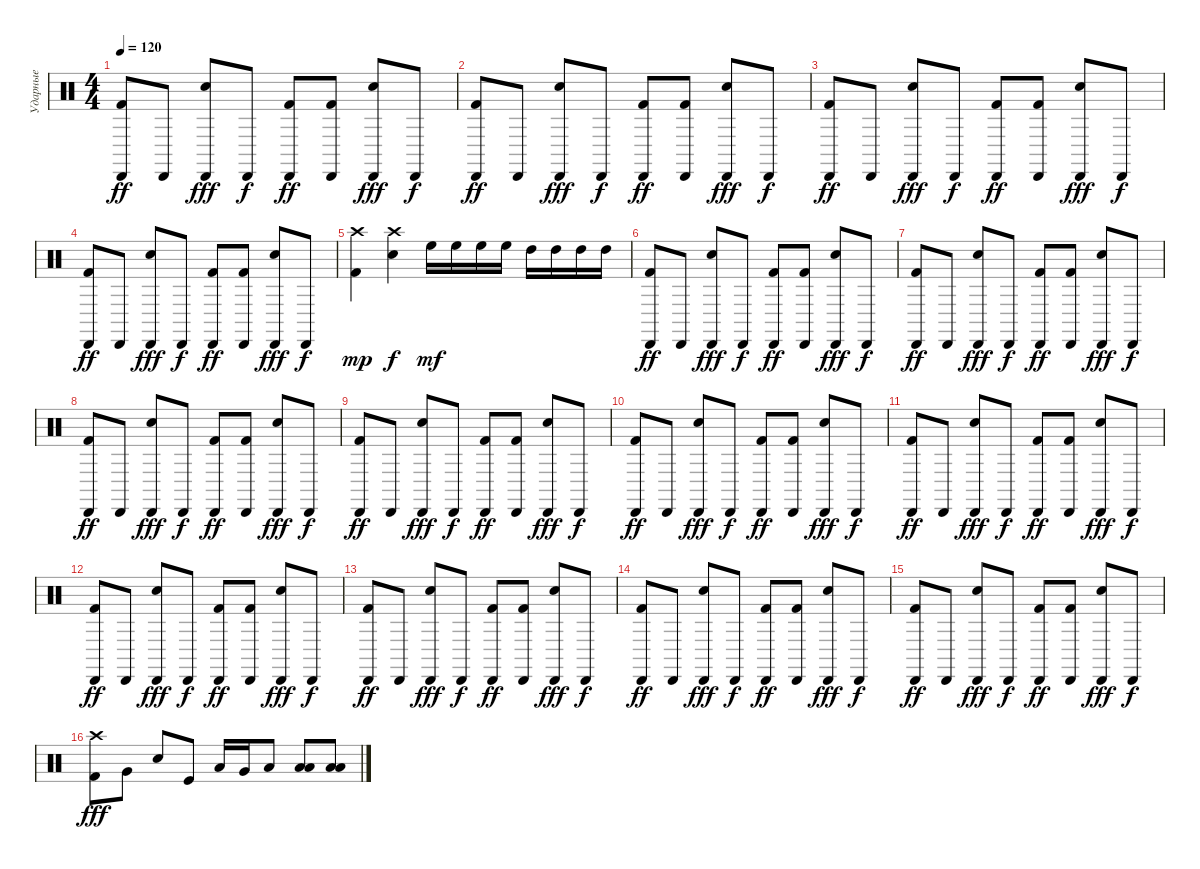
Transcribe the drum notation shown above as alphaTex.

\track ("Ударные" "Ударные") {instrument percussion}
\staff {score}
\articulation defaults
\ts (4 4)
\tempo 120
\clef neutral
\ks c
("Cabasa (hit)" "Kick (hit) 2").8{dy ff} "Cabasa (hit)".8 ("Snare (hit) 2" "Cabasa (hit)").8{dy fff} "Cabasa (hit)".8{dy f} ("Cabasa (hit)" "Kick (hit) 2").8{dy ff} ("Cabasa (hit)" "Kick (hit) 2").8 ("Snare (hit) 2" "Cabasa (hit)").8{dy fff} "Cabasa (hit)".8{dy f} |
("Cabasa (hit)" "Kick (hit) 2").8{dy ff} "Cabasa (hit)".8 ("Snare (hit) 2" "Cabasa (hit)").8{dy fff} "Cabasa (hit)".8{dy f} ("Cabasa (hit)" "Kick (hit) 2").8{dy ff} ("Cabasa (hit)" "Kick (hit) 2").8 ("Snare (hit) 2" "Cabasa (hit)").8{dy fff} "Cabasa (hit)".8{dy f} |
("Cabasa (hit)" "Kick (hit) 2").8{dy ff} "Cabasa (hit)".8 ("Snare (hit) 2" "Cabasa (hit)").8{dy fff} "Cabasa (hit)".8{dy f} ("Cabasa (hit)" "Kick (hit) 2").8{dy ff} ("Cabasa (hit)" "Kick (hit) 2").8 ("Snare (hit) 2" "Cabasa (hit)").8{dy fff} "Cabasa (hit)".8{dy f} |
("Cabasa (hit)" "Kick (hit) 2").8{dy ff} "Cabasa (hit)".8 ("Snare (hit) 2" "Cabasa (hit)").8{dy fff} "Cabasa (hit)".8{dy f} ("Cabasa (hit)" "Kick (hit) 2").8{dy ff} ("Cabasa (hit)" "Kick (hit) 2").8 ("Snare (hit) 2" "Cabasa (hit)").8{dy fff} "Cabasa (hit)".8{dy f} |
("Crash high (hit)" "Kick (hit) 2").4{dy mp} ("Crash high (hit)" "Snare (hit) 2").4{dy f} "High Floor Tom (hit)".16{dy mf} "High Floor Tom (hit)".16 "High Floor Tom (hit)".16 "High Floor Tom (hit)".16 "High Tom (hit)".16 "High Tom (hit)".16 "High Tom (hit)".16 "High Tom (hit)".16 |
("Cabasa (hit)" "Kick (hit) 2").8{dy ff} "Cabasa (hit)".8 ("Snare (hit) 2" "Cabasa (hit)").8{dy fff} "Cabasa (hit)".8{dy f} ("Cabasa (hit)" "Kick (hit) 2").8{dy ff} ("Cabasa (hit)" "Kick (hit) 2").8 ("Snare (hit) 2" "Cabasa (hit)").8{dy fff} "Cabasa (hit)".8{dy f} |
("Cabasa (hit)" "Kick (hit) 2").8{dy ff} "Cabasa (hit)".8 ("Snare (hit) 2" "Cabasa (hit)").8{dy fff} "Cabasa (hit)".8{dy f} ("Cabasa (hit)" "Kick (hit) 2").8{dy ff} ("Cabasa (hit)" "Kick (hit) 2").8 ("Snare (hit) 2" "Cabasa (hit)").8{dy fff} "Cabasa (hit)".8{dy f} |
("Cabasa (hit)" "Kick (hit) 2").8{dy ff} "Cabasa (hit)".8 ("Snare (hit) 2" "Cabasa (hit)").8{dy fff} "Cabasa (hit)".8{dy f} ("Cabasa (hit)" "Kick (hit) 2").8{dy ff} ("Cabasa (hit)" "Kick (hit) 2").8 ("Snare (hit) 2" "Cabasa (hit)").8{dy fff} "Cabasa (hit)".8{dy f} |
("Cabasa (hit)" "Kick (hit) 2").8{dy ff} "Cabasa (hit)".8 ("Snare (hit) 2" "Cabasa (hit)").8{dy fff} "Cabasa (hit)".8{dy f} ("Cabasa (hit)" "Kick (hit) 2").8{dy ff} ("Cabasa (hit)" "Kick (hit) 2").8 ("Snare (hit) 2" "Cabasa (hit)").8{dy fff} "Cabasa (hit)".8{dy f} |
("Cabasa (hit)" "Kick (hit) 2").8{dy ff} "Cabasa (hit)".8 ("Snare (hit) 2" "Cabasa (hit)").8{dy fff} "Cabasa (hit)".8{dy f} ("Cabasa (hit)" "Kick (hit) 2").8{dy ff} ("Cabasa (hit)" "Kick (hit) 2").8 ("Snare (hit) 2" "Cabasa (hit)").8{dy fff} "Cabasa (hit)".8{dy f} |
("Cabasa (hit)" "Kick (hit) 2").8{dy ff} "Cabasa (hit)".8 ("Snare (hit) 2" "Cabasa (hit)").8{dy fff} "Cabasa (hit)".8{dy f} ("Cabasa (hit)" "Kick (hit) 2").8{dy ff} ("Cabasa (hit)" "Kick (hit) 2").8 ("Snare (hit) 2" "Cabasa (hit)").8{dy fff} "Cabasa (hit)".8{dy f} |
("Cabasa (hit)" "Kick (hit) 2").8{dy ff} "Cabasa (hit)".8 ("Snare (hit) 2" "Cabasa (hit)").8{dy fff} "Cabasa (hit)".8{dy f} ("Cabasa (hit)" "Kick (hit) 2").8{dy ff} ("Cabasa (hit)" "Kick (hit) 2").8 ("Snare (hit) 2" "Cabasa (hit)").8{dy fff} "Cabasa (hit)".8{dy f} |
("Cabasa (hit)" "Kick (hit) 2").8{dy ff} "Cabasa (hit)".8 ("Snare (hit) 2" "Cabasa (hit)").8{dy fff} "Cabasa (hit)".8{dy f} ("Cabasa (hit)" "Kick (hit) 2").8{dy ff} ("Cabasa (hit)" "Kick (hit) 2").8 ("Snare (hit) 2" "Cabasa (hit)").8{dy fff} "Cabasa (hit)".8{dy f} |
("Cabasa (hit)" "Kick (hit) 2").8{dy ff} "Cabasa (hit)".8 ("Snare (hit) 2" "Cabasa (hit)").8{dy fff} "Cabasa (hit)".8{dy f} ("Cabasa (hit)" "Kick (hit) 2").8{dy ff} ("Cabasa (hit)" "Kick (hit) 2").8 ("Snare (hit) 2" "Cabasa (hit)").8{dy fff} "Cabasa (hit)".8{dy f} |
("Cabasa (hit)" "Kick (hit) 2").8{dy ff} "Cabasa (hit)".8 ("Snare (hit) 2" "Cabasa (hit)").8{dy fff} "Cabasa (hit)".8{dy f} ("Cabasa (hit)" "Kick (hit) 2").8{dy ff} ("Cabasa (hit)" "Kick (hit) 2").8 ("Snare (hit) 2" "Cabasa (hit)").8{dy fff} "Cabasa (hit)".8{dy f} |
("Crash high (hit)" "Kick (hit) 2").8{dy fff} "Very Low Tom (hit)".8 "Electric Snare (hit)".8 "Kick (hit)".8 "Low Tom (hit)".16 "Very Low Tom (hit)".16 "Low Tom (hit)".8 ("Low Floor Tom (hit)" "Low Tom (hit)").8 ("Low Floor Tom (hit)" "Low Tom (hit)").8
